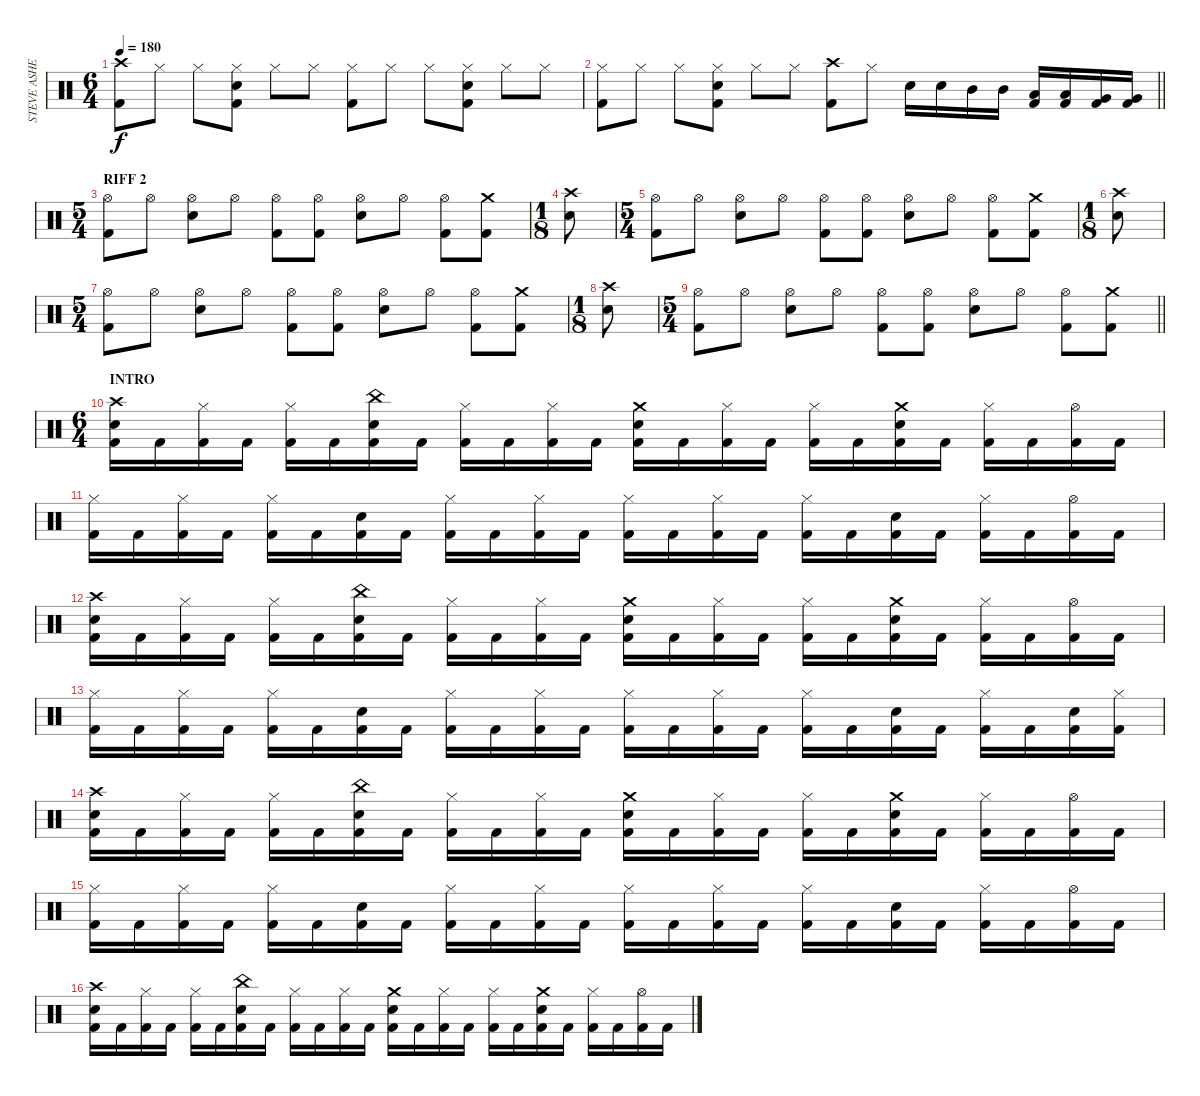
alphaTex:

\track ("STEVE ASHEIM" "STEVE ASHE") {instrument percussion}
\staff {score}
\articulation defaults
\ts (6 4)
\tempo 180
\clef neutral
\ks c
("Crash high (hit)" "Kick (hit) 2").8{dy f} "Hi-Hat (closed)".8 "Hi-Hat (closed)".8 ("Hi-Hat (closed)" "Snare (hit) 2" "Kick (hit) 2").8 "Hi-Hat (closed)".8 "Hi-Hat (closed)".8 ("Hi-Hat (closed)" "Kick (hit) 2").8 "Hi-Hat (closed)".8 "Hi-Hat (closed)".8 ("Hi-Hat (closed)" "Snare (hit) 2" "Kick (hit) 2").8 "Hi-Hat (closed)".8 "Hi-Hat (closed)".8 |
\barLineRight lightlight
("Hi-Hat (closed)" "Kick (hit) 2").8 "Hi-Hat (closed)".8 "Hi-Hat (closed)".8 ("Hi-Hat (closed)" "Snare (hit) 2" "Kick (hit) 2").8 "Hi-Hat (closed)".8 "Hi-Hat (closed)".8 ("Crash high (hit)" "Kick (hit) 2").8 "Hi-Hat (closed)".8 "Snare (hit) 2".16 "Snare (hit) 2".16 "Mid Tom (hit)".16 "Mid Tom (hit)".16 ("Low Tom (hit)" "Kick (hit) 2").16 ("Low Tom (hit)" "Kick (hit) 2").16 ("Very Low Tom (hit)" "Kick (hit) 2").16 ("Very Low Tom (hit)" "Kick (hit) 2").16 |
\ts (5 4)
\section ("" "RIFF 2")
("Hi-Hat (open)" "Kick (hit) 2").8 "Hi-Hat (open)".8 ("Hi-Hat (open)" "Snare (hit) 2").8 "Hi-Hat (open)".8 ("Hi-Hat (open)" "Kick (hit) 2").8 ("Hi-Hat (open)" "Kick (hit) 2").8 ("Hi-Hat (open)" "Snare (hit) 2").8 "Hi-Hat (open)".8 ("Hi-Hat (open)" "Kick (hit) 2").8 ("Crash medium (hit)" "Kick (hit) 2").8 |
\ts (1 8)
("Crash high (hit)" "Snare (hit) 2").8 |
\ts (5 4)
("Hi-Hat (open)" "Kick (hit) 2").8 "Hi-Hat (open)".8 ("Hi-Hat (open)" "Snare (hit) 2").8 "Hi-Hat (open)".8 ("Hi-Hat (open)" "Kick (hit) 2").8 ("Hi-Hat (open)" "Kick (hit) 2").8 ("Hi-Hat (open)" "Snare (hit) 2").8 "Hi-Hat (open)".8 ("Hi-Hat (open)" "Kick (hit) 2").8 ("Crash medium (hit)" "Kick (hit) 2").8 |
\ts (1 8)
("Crash high (hit)" "Snare (hit) 2").8 |
\ts (5 4)
("Hi-Hat (open)" "Kick (hit) 2").8 "Hi-Hat (open)".8 ("Hi-Hat (open)" "Snare (hit) 2").8 "Hi-Hat (open)".8 ("Hi-Hat (open)" "Kick (hit) 2").8 ("Hi-Hat (open)" "Kick (hit) 2").8 ("Hi-Hat (open)" "Snare (hit) 2").8 "Hi-Hat (open)".8 ("Hi-Hat (open)" "Kick (hit) 2").8 ("Crash medium (hit)" "Kick (hit) 2").8 |
\ts (1 8)
("Crash high (hit)" "Snare (hit) 2").8 |
\ts (5 4)
\barLineRight lightlight
("Hi-Hat (open)" "Kick (hit) 2").8 "Hi-Hat (open)".8 ("Hi-Hat (open)" "Snare (hit) 2").8 "Hi-Hat (open)".8 ("Hi-Hat (open)" "Kick (hit) 2").8 ("Hi-Hat (open)" "Kick (hit) 2").8 ("Hi-Hat (open)" "Snare (hit) 2").8 "Hi-Hat (open)".8 ("Hi-Hat (open)" "Kick (hit) 2").8 ("Crash medium (hit)" "Kick (hit) 2").8 |
\ts (6 4)
\section ("" "INTRO")
("Snare (hit) 2" "Kick (hit) 2" "Crash high (hit)").16 "Kick (hit) 2".16 ("Hi-Hat (closed)" "Kick (hit) 2").16 "Kick (hit) 2".16 ("Hi-Hat (closed)" "Kick (hit) 2").16 "Kick (hit) 2".16 ("Snare (hit) 2" "Kick (hit) 2" "China (hit)").16 "Kick (hit) 2".16 ("Hi-Hat (closed)" "Kick (hit) 2").16 "Kick (hit) 2".16 ("Hi-Hat (closed)" "Kick (hit) 2").16 "Kick (hit) 2".16 ("Snare (hit) 2" "Kick (hit) 2" "Crash medium (hit)").16 "Kick (hit) 2".16 ("Hi-Hat (closed)" "Kick (hit) 2").16 "Kick (hit) 2".16 ("Hi-Hat (closed)" "Kick (hit) 2").16 "Kick (hit) 2".16 ("Snare (hit) 2" "Kick (hit) 2" "Crash medium (hit)").16 "Kick (hit) 2".16 ("Hi-Hat (closed)" "Kick (hit) 2").16 "Kick (hit) 2".16 ("Hi-Hat (open)" "Kick (hit) 2").16 "Kick (hit) 2".16 |
("Hi-Hat (closed)" "Kick (hit) 2").16 "Kick (hit) 2".16 ("Hi-Hat (closed)" "Kick (hit) 2").16 "Kick (hit) 2".16 ("Hi-Hat (closed)" "Kick (hit) 2").16 "Kick (hit) 2".16 ("Snare (hit) 2" "Kick (hit) 2").16 "Kick (hit) 2".16 ("Hi-Hat (closed)" "Kick (hit) 2").16 "Kick (hit) 2".16 ("Hi-Hat (closed)" "Kick (hit) 2").16 "Kick (hit) 2".16 ("Hi-Hat (closed)" "Kick (hit) 2").16 "Kick (hit) 2".16 ("Hi-Hat (closed)" "Kick (hit) 2").16 "Kick (hit) 2".16 ("Hi-Hat (closed)" "Kick (hit) 2").16 "Kick (hit) 2".16 ("Snare (hit) 2" "Kick (hit) 2").16 "Kick (hit) 2".16 ("Hi-Hat (closed)" "Kick (hit) 2").16 "Kick (hit) 2".16 ("Hi-Hat (open)" "Kick (hit) 2").16 "Kick (hit) 2".16 |
("Snare (hit) 2" "Kick (hit) 2" "Crash high (hit)").16 "Kick (hit) 2".16 ("Hi-Hat (closed)" "Kick (hit) 2").16 "Kick (hit) 2".16 ("Hi-Hat (closed)" "Kick (hit) 2").16 "Kick (hit) 2".16 ("Snare (hit) 2" "Kick (hit) 2" "China (hit)").16 "Kick (hit) 2".16 ("Hi-Hat (closed)" "Kick (hit) 2").16 "Kick (hit) 2".16 ("Hi-Hat (closed)" "Kick (hit) 2").16 "Kick (hit) 2".16 ("Snare (hit) 2" "Kick (hit) 2" "Crash medium (hit)").16 "Kick (hit) 2".16 ("Hi-Hat (closed)" "Kick (hit) 2").16 "Kick (hit) 2".16 ("Hi-Hat (closed)" "Kick (hit) 2").16 "Kick (hit) 2".16 ("Snare (hit) 2" "Kick (hit) 2" "Crash medium (hit)").16 "Kick (hit) 2".16 ("Hi-Hat (closed)" "Kick (hit) 2").16 "Kick (hit) 2".16 ("Hi-Hat (open)" "Kick (hit) 2").16 "Kick (hit) 2".16 |
("Hi-Hat (closed)" "Kick (hit) 2").16 "Kick (hit) 2".16 ("Hi-Hat (closed)" "Kick (hit) 2").16 "Kick (hit) 2".16 ("Hi-Hat (closed)" "Kick (hit) 2").16 "Kick (hit) 2".16 ("Snare (hit) 2" "Kick (hit) 2").16 "Kick (hit) 2".16 ("Hi-Hat (closed)" "Kick (hit) 2").16 "Kick (hit) 2".16 ("Hi-Hat (closed)" "Kick (hit) 2").16 "Kick (hit) 2".16 ("Hi-Hat (closed)" "Kick (hit) 2").16 "Kick (hit) 2".16 ("Hi-Hat (closed)" "Kick (hit) 2").16 "Kick (hit) 2".16 ("Hi-Hat (closed)" "Kick (hit) 2").16 "Kick (hit) 2".16 ("Snare (hit) 2" "Kick (hit) 2").16 "Kick (hit) 2".16 ("Hi-Hat (closed)" "Kick (hit) 2").16 "Kick (hit) 2".16 ("Snare (hit) 2" "Kick (hit) 2").16 ("Hi-Hat (closed)" "Kick (hit) 2").16 |
("Snare (hit) 2" "Kick (hit) 2" "Crash high (hit)").16 "Kick (hit) 2".16 ("Hi-Hat (closed)" "Kick (hit) 2").16 "Kick (hit) 2".16 ("Hi-Hat (closed)" "Kick (hit) 2").16 "Kick (hit) 2".16 ("Snare (hit) 2" "Kick (hit) 2" "China (hit)").16 "Kick (hit) 2".16 ("Hi-Hat (closed)" "Kick (hit) 2").16 "Kick (hit) 2".16 ("Hi-Hat (closed)" "Kick (hit) 2").16 "Kick (hit) 2".16 ("Snare (hit) 2" "Kick (hit) 2" "Crash medium (hit)").16 "Kick (hit) 2".16 ("Hi-Hat (closed)" "Kick (hit) 2").16 "Kick (hit) 2".16 ("Hi-Hat (closed)" "Kick (hit) 2").16 "Kick (hit) 2".16 ("Snare (hit) 2" "Kick (hit) 2" "Crash medium (hit)").16 "Kick (hit) 2".16 ("Hi-Hat (closed)" "Kick (hit) 2").16 "Kick (hit) 2".16 ("Hi-Hat (open)" "Kick (hit) 2").16 "Kick (hit) 2".16 |
("Hi-Hat (closed)" "Kick (hit) 2").16 "Kick (hit) 2".16 ("Hi-Hat (closed)" "Kick (hit) 2").16 "Kick (hit) 2".16 ("Hi-Hat (closed)" "Kick (hit) 2").16 "Kick (hit) 2".16 ("Snare (hit) 2" "Kick (hit) 2").16 "Kick (hit) 2".16 ("Hi-Hat (closed)" "Kick (hit) 2").16 "Kick (hit) 2".16 ("Hi-Hat (closed)" "Kick (hit) 2").16 "Kick (hit) 2".16 ("Hi-Hat (closed)" "Kick (hit) 2").16 "Kick (hit) 2".16 ("Hi-Hat (closed)" "Kick (hit) 2").16 "Kick (hit) 2".16 ("Hi-Hat (closed)" "Kick (hit) 2").16 "Kick (hit) 2".16 ("Snare (hit) 2" "Kick (hit) 2").16 "Kick (hit) 2".16 ("Hi-Hat (closed)" "Kick (hit) 2").16 "Kick (hit) 2".16 ("Hi-Hat (open)" "Kick (hit) 2").16 "Kick (hit) 2".16 |
("Snare (hit) 2" "Kick (hit) 2" "Crash high (hit)").16 "Kick (hit) 2".16 ("Hi-Hat (closed)" "Kick (hit) 2").16 "Kick (hit) 2".16 ("Hi-Hat (closed)" "Kick (hit) 2").16 "Kick (hit) 2".16 ("Snare (hit) 2" "Kick (hit) 2" "China (hit)").16 "Kick (hit) 2".16 ("Hi-Hat (closed)" "Kick (hit) 2").16 "Kick (hit) 2".16 ("Hi-Hat (closed)" "Kick (hit) 2").16 "Kick (hit) 2".16 ("Snare (hit) 2" "Kick (hit) 2" "Crash medium (hit)").16 "Kick (hit) 2".16 ("Hi-Hat (closed)" "Kick (hit) 2").16 "Kick (hit) 2".16 ("Hi-Hat (closed)" "Kick (hit) 2").16 "Kick (hit) 2".16 ("Snare (hit) 2" "Kick (hit) 2" "Crash medium (hit)").16 "Kick (hit) 2".16 ("Hi-Hat (closed)" "Kick (hit) 2").16 "Kick (hit) 2".16 ("Hi-Hat (open)" "Kick (hit) 2").16 "Kick (hit) 2".16
